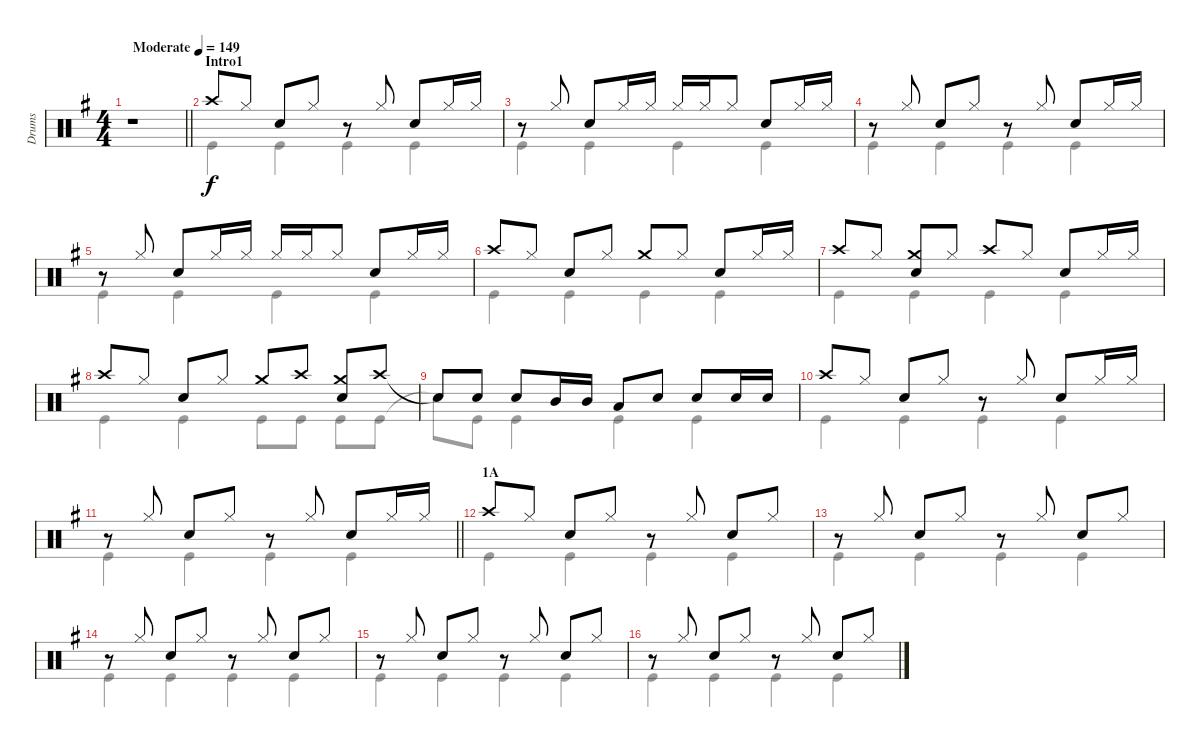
\track ("Drums" "Drums") {instrument percussion}
\staff {score}
\articulation defaults
\voice
\ts (4 4)
\tempo (149 "Moderate")
\clef neutral
\barLineRight lightlight
\ks g
r.1{dy f} |
\section ("" "Intro1")
"Crash high (hit)".8 "Hi-Hat (closed)".8 "Snare (hit) 2".8 "Hi-Hat (closed)".8 r.8 "Hi-Hat (closed)".8 "Snare (hit) 2".8 "Hi-Hat (closed)".16 "Hi-Hat (closed)".16 |
r.8 "Hi-Hat (closed)".8 "Snare (hit) 2".8 "Hi-Hat (closed)".16 "Hi-Hat (closed)".16 "Hi-Hat (closed)".16 "Hi-Hat (closed)".16 "Hi-Hat (closed)".8 "Snare (hit) 2".8 "Hi-Hat (closed)".16 "Hi-Hat (closed)".16 |
r.8 "Hi-Hat (closed)".8 "Snare (hit) 2".8 "Hi-Hat (closed)".8 r.8 "Hi-Hat (closed)".8 "Snare (hit) 2".8 "Hi-Hat (closed)".16 "Hi-Hat (closed)".16 |
r.8 "Hi-Hat (closed)".8 "Snare (hit) 2".8 "Hi-Hat (closed)".16 "Hi-Hat (closed)".16 "Hi-Hat (closed)".16 "Hi-Hat (closed)".16 "Hi-Hat (closed)".8 "Snare (hit) 2".8 "Hi-Hat (closed)".16 "Hi-Hat (closed)".16 |
"Crash high (hit)".8 "Hi-Hat (closed)".8 "Snare (hit) 2".8 "Hi-Hat (closed)".8 "Crash medium (hit)".8 "Hi-Hat (closed)".8 "Snare (hit) 2".8 "Hi-Hat (closed)".16 "Hi-Hat (closed)".16 |
"Crash high (hit)".8 "Hi-Hat (closed)".8 ("Crash medium (hit)" "Snare (hit) 2").8 "Hi-Hat (closed)".8 "Crash high (hit)".8 "Hi-Hat (closed)".8 "Snare (hit) 2".8 "Hi-Hat (closed)".16 "Hi-Hat (closed)".16 |
"Crash high (hit)".8 "Hi-Hat (closed)".8 "Snare (hit) 2".8 "Hi-Hat (closed)".8 "Crash medium (hit)".8 "Crash high (hit)".8 ("Crash medium (hit)" "Snare (hit) 2").8 "Crash high (hit)".8 |
"Snare (hit)"{t}.8 "Snare (hit) 2".8 "Snare (hit) 2".8 "Mid Tom (hit)".16 "Mid Tom (hit)".16 "Low Tom (hit)".8 "Snare (hit) 2".8 "Snare (hit) 2".8 "Snare (hit) 2".16 "Snare (hit) 2".16 |
"Crash high (hit)".8 "Hi-Hat (closed)".8 "Snare (hit) 2".8 "Hi-Hat (closed)".8 r.8 "Hi-Hat (closed)".8 "Snare (hit) 2".8 "Hi-Hat (closed)".16 "Hi-Hat (closed)".16 |
\barLineRight lightlight
r.8 "Hi-Hat (closed)".8 "Snare (hit) 2".8 "Hi-Hat (closed)".8 r.8 "Hi-Hat (closed)".8 "Snare (hit) 2".8 "Hi-Hat (closed)".16 "Hi-Hat (closed)".16 |
\section ("" "1A")
"Crash high (hit)".8 "Hi-Hat (closed)".8 "Snare (hit) 2".8 "Hi-Hat (closed)".8 r.8 "Hi-Hat (closed)".8 "Snare (hit) 2".8 "Hi-Hat (closed)".8 |
r.8 "Hi-Hat (closed)".8 "Snare (hit) 2".8 "Hi-Hat (closed)".8 r.8 "Hi-Hat (closed)".8 "Snare (hit) 2".8 "Hi-Hat (closed)".8 |
r.8 "Hi-Hat (closed)".8 "Snare (hit) 2".8 "Hi-Hat (closed)".8 r.8 "Hi-Hat (closed)".8 "Snare (hit) 2".8 "Hi-Hat (closed)".8 |
r.8 "Hi-Hat (closed)".8 "Snare (hit) 2".8 "Hi-Hat (closed)".8 r.8 "Hi-Hat (closed)".8 "Snare (hit) 2".8 "Hi-Hat (closed)".8 |
r.8 "Hi-Hat (closed)".8 "Snare (hit) 2".8 "Hi-Hat (closed)".8 r.8 "Hi-Hat (closed)".8 "Snare (hit) 2".8 "Hi-Hat (closed)".8
\voice
\clef neutral
\ottava regular
\simile none
\barLineRight lightlight
\ks g
r.1{dy f} |
"Kick (hit)".4 "Kick (hit)".4 "Kick (hit)".4 "Kick (hit)".4 |
"Kick (hit)".4 "Kick (hit)".4 "Kick (hit)".4 "Kick (hit)".4 |
"Kick (hit)".4 "Kick (hit)".4 "Kick (hit)".4 "Kick (hit)".4 |
"Kick (hit)".4 "Kick (hit)".4 "Kick (hit)".4 "Kick (hit)".4 |
"Kick (hit)".4 "Kick (hit)".4 "Kick (hit)".4 "Kick (hit)".4 |
"Kick (hit)".4 "Kick (hit)".4 "Kick (hit)".4 "Kick (hit)".4 |
"Kick (hit)".4 "Kick (hit)".4 "Kick (hit)".8 "Kick (hit)".8 "Kick (hit)".8 "Kick (hit)".8 |
"Snare (hit)"{t}.8 "Kick (hit)".8 "Kick (hit)".4 "Kick (hit)".4 "Kick (hit)".4 |
"Kick (hit)".4 "Kick (hit)".4 "Kick (hit)".4 "Kick (hit)".4 |
\barLineRight lightlight "Kick (hit)".4 "Kick (hit)".4 "Kick (hit)".4 "Kick (hit)".4
|
"Kick (hit)".4 "Kick (hit)".4 "Kick (hit)".4 "Kick (hit)".4 |
"Kick (hit)".4 "Kick (hit)".4 "Kick (hit)".4 "Kick (hit)".4 |
"Kick (hit)".4 "Kick (hit)".4 "Kick (hit)".4 "Kick (hit)".4 |
"Kick (hit)".4 "Kick (hit)".4 "Kick (hit)".4 "Kick (hit)".4 |
"Kick (hit)".4 "Kick (hit)".4 "Kick (hit)".4 "Kick (hit)".4
